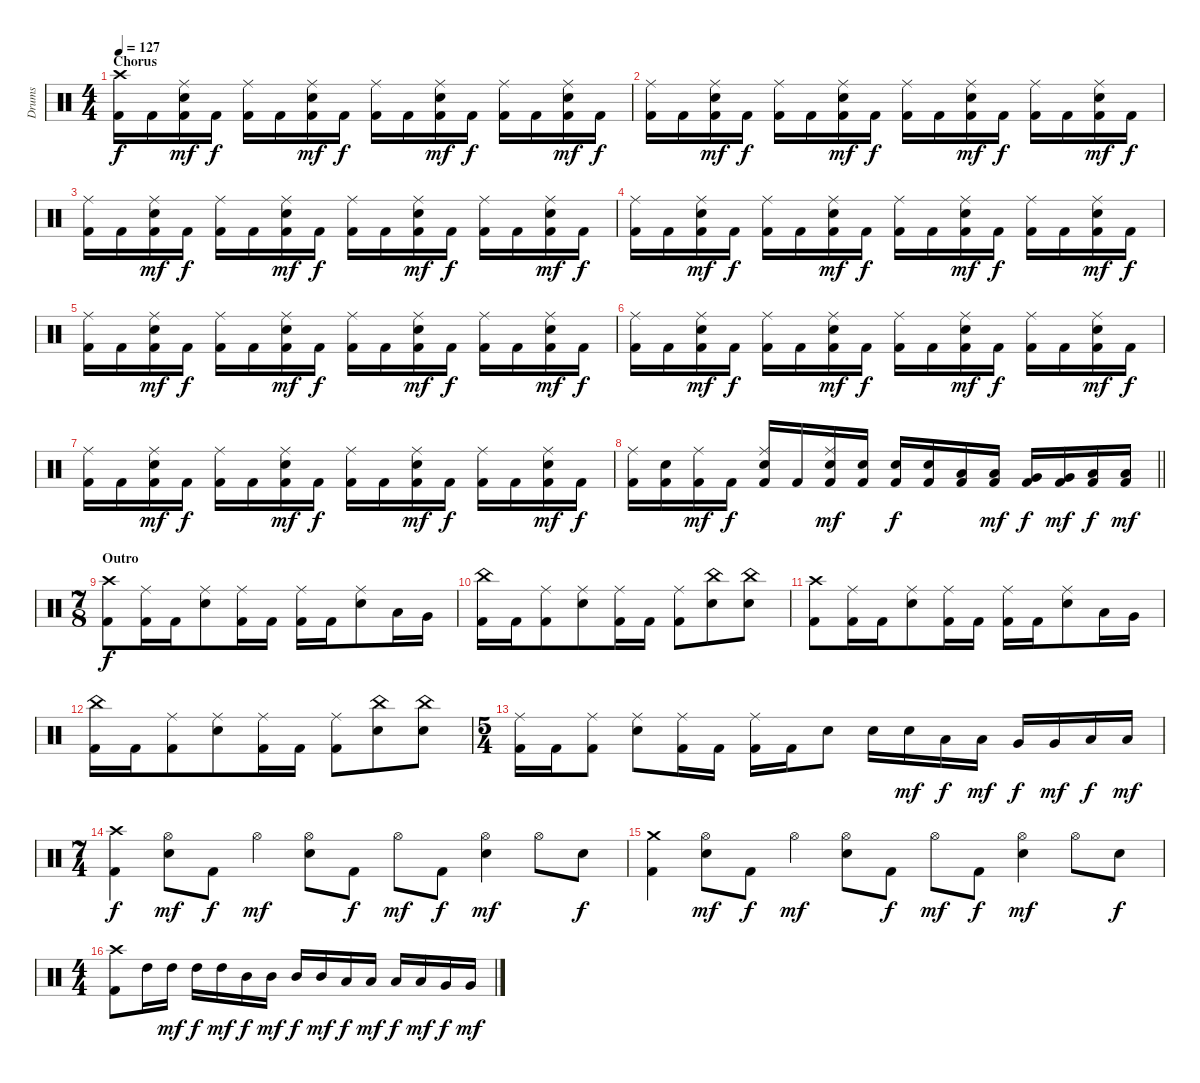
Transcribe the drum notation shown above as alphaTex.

\track ("Drums" "Drums") {instrument percussion}
\staff {score}
\articulation defaults
\ts (4 4)
\section ("" "Chorus")
\tempo 127
\clef neutral
\ks c
("Kick (hit) 2" "Crash high (hit)").16{dy f} "Kick (hit) 2".16 ("Kick (hit) 2" "Ride (middle)" "Electric Snare (hit)").16{dy mf} "Kick (hit) 2".16{dy f} ("Kick (hit) 2" "Ride (middle)").16 "Kick (hit) 2".16 ("Kick (hit) 2" "Ride (middle)" "Electric Snare (hit)").16{dy mf} "Kick (hit) 2".16{dy f} ("Kick (hit) 2" "Ride (middle)").16 "Kick (hit) 2".16 ("Kick (hit) 2" "Ride (middle)" "Electric Snare (hit)").16{dy mf} "Kick (hit) 2".16{dy f} ("Kick (hit) 2" "Ride (middle)").16 "Kick (hit) 2".16 ("Kick (hit) 2" "Ride (middle)" "Electric Snare (hit)").16{dy mf} "Kick (hit) 2".16{dy f} |
("Kick (hit) 2" "Ride (middle)").16 "Kick (hit) 2".16 ("Kick (hit) 2" "Ride (middle)" "Electric Snare (hit)").16{dy mf} "Kick (hit) 2".16{dy f} ("Kick (hit) 2" "Ride (middle)").16 "Kick (hit) 2".16 ("Kick (hit) 2" "Ride (middle)" "Electric Snare (hit)").16{dy mf} "Kick (hit) 2".16{dy f} ("Kick (hit) 2" "Ride (middle)").16 "Kick (hit) 2".16 ("Kick (hit) 2" "Ride (middle)" "Electric Snare (hit)").16{dy mf} "Kick (hit) 2".16{dy f} ("Kick (hit) 2" "Ride (middle)").16 "Kick (hit) 2".16 ("Kick (hit) 2" "Ride (middle)" "Electric Snare (hit)").16{dy mf} "Kick (hit) 2".16{dy f} |
("Kick (hit) 2" "Ride (middle)").16 "Kick (hit) 2".16 ("Kick (hit) 2" "Ride (middle)" "Electric Snare (hit)").16{dy mf} "Kick (hit) 2".16{dy f} ("Kick (hit) 2" "Ride (middle)").16 "Kick (hit) 2".16 ("Kick (hit) 2" "Ride (middle)" "Electric Snare (hit)").16{dy mf} "Kick (hit) 2".16{dy f} ("Kick (hit) 2" "Ride (middle)").16 "Kick (hit) 2".16 ("Kick (hit) 2" "Ride (middle)" "Electric Snare (hit)").16{dy mf} "Kick (hit) 2".16{dy f} ("Kick (hit) 2" "Ride (middle)").16 "Kick (hit) 2".16 ("Kick (hit) 2" "Ride (middle)" "Electric Snare (hit)").16{dy mf} "Kick (hit) 2".16{dy f} |
("Kick (hit) 2" "Ride (middle)").16 "Kick (hit) 2".16 ("Kick (hit) 2" "Ride (middle)" "Electric Snare (hit)").16{dy mf} "Kick (hit) 2".16{dy f} ("Kick (hit) 2" "Ride (middle)").16 "Kick (hit) 2".16 ("Kick (hit) 2" "Ride (middle)" "Electric Snare (hit)").16{dy mf} "Kick (hit) 2".16{dy f} ("Kick (hit) 2" "Ride (middle)").16 "Kick (hit) 2".16 ("Kick (hit) 2" "Ride (middle)" "Electric Snare (hit)").16{dy mf} "Kick (hit) 2".16{dy f} ("Kick (hit) 2" "Ride (middle)").16 "Kick (hit) 2".16 ("Kick (hit) 2" "Ride (middle)" "Electric Snare (hit)").16{dy mf} "Kick (hit) 2".16{dy f} |
("Kick (hit) 2" "Ride (middle)").16 "Kick (hit) 2".16 ("Kick (hit) 2" "Ride (middle)" "Electric Snare (hit)").16{dy mf} "Kick (hit) 2".16{dy f} ("Kick (hit) 2" "Ride (middle)").16 "Kick (hit) 2".16 ("Kick (hit) 2" "Ride (middle)" "Electric Snare (hit)").16{dy mf} "Kick (hit) 2".16{dy f} ("Kick (hit) 2" "Ride (middle)").16 "Kick (hit) 2".16 ("Kick (hit) 2" "Ride (middle)" "Electric Snare (hit)").16{dy mf} "Kick (hit) 2".16{dy f} ("Kick (hit) 2" "Ride (middle)").16 "Kick (hit) 2".16 ("Kick (hit) 2" "Ride (middle)" "Electric Snare (hit)").16{dy mf} "Kick (hit) 2".16{dy f} |
("Kick (hit) 2" "Ride (middle)").16 "Kick (hit) 2".16 ("Kick (hit) 2" "Ride (middle)" "Electric Snare (hit)").16{dy mf} "Kick (hit) 2".16{dy f} ("Kick (hit) 2" "Ride (middle)").16 "Kick (hit) 2".16 ("Kick (hit) 2" "Ride (middle)" "Electric Snare (hit)").16{dy mf} "Kick (hit) 2".16{dy f} ("Kick (hit) 2" "Ride (middle)").16 "Kick (hit) 2".16 ("Kick (hit) 2" "Ride (middle)" "Electric Snare (hit)").16{dy mf} "Kick (hit) 2".16{dy f} ("Kick (hit) 2" "Ride (middle)").16 "Kick (hit) 2".16 ("Kick (hit) 2" "Ride (middle)" "Electric Snare (hit)").16{dy mf} "Kick (hit) 2".16{dy f} |
("Kick (hit) 2" "Ride (middle)").16 "Kick (hit) 2".16 ("Kick (hit) 2" "Ride (middle)" "Electric Snare (hit)").16{dy mf} "Kick (hit) 2".16{dy f} ("Kick (hit) 2" "Ride (middle)").16 "Kick (hit) 2".16 ("Kick (hit) 2" "Ride (middle)" "Electric Snare (hit)").16{dy mf} "Kick (hit) 2".16{dy f} ("Kick (hit) 2" "Ride (middle)").16 "Kick (hit) 2".16 ("Kick (hit) 2" "Ride (middle)" "Electric Snare (hit)").16{dy mf} "Kick (hit) 2".16{dy f} ("Kick (hit) 2" "Ride (middle)").16 "Kick (hit) 2".16 ("Kick (hit) 2" "Ride (middle)" "Electric Snare (hit)").16{dy mf} "Kick (hit) 2".16{dy f} |
\barLineRight lightlight
("Kick (hit) 2" "Ride (middle)").16 ("Kick (hit) 2" "Electric Snare (hit)").16 ("Kick (hit) 2" "Ride (middle)").16{dy mf} "Kick (hit) 2".16{dy f} ("Kick (hit) 2" "Ride (middle)" "Electric Snare (hit)").16 "Kick (hit) 2".16 ("Kick (hit) 2" "Ride (middle)" "Electric Snare (hit)").16{dy mf} ("Kick (hit) 2" "Electric Snare (hit)").16 ("Kick (hit) 2" "Electric Snare (hit)").16{dy f} ("Kick (hit) 2" "Electric Snare (hit)").16 ("Kick (hit) 2" "Low Tom (hit)").16 ("Kick (hit) 2" "Low Tom (hit)").16{dy mf} ("Kick (hit) 2" "Very Low Tom (hit)").16{dy f} ("Kick (hit) 2" "Very Low Tom (hit)").16{dy mf} ("Kick (hit) 2" "Low Floor Tom (hit)").16{dy f} ("Kick (hit) 2" "Low Floor Tom (hit)").16{dy mf} |
\ts (7 8)
\section ("" "Outro")
("Kick (hit) 2" "Crash high (hit)").8{dy f} ("Kick (hit) 2" "Ride (middle)").16 "Kick (hit) 2".16 ("Ride (middle)" "Electric Snare (hit)").8 ("Kick (hit) 2" "Ride (middle)").16 "Kick (hit) 2".16 ("Kick (hit) 2" "Ride (middle)").16 "Kick (hit) 2".16 ("Ride (middle)" "Electric Snare (hit)").8 "Low Tom (hit)".16 "Very Low Tom (hit)".16 |
("Kick (hit) 2" "China (hit)").16 "Kick (hit) 2".16 ("Kick (hit) 2" "Ride (middle)").8 ("Ride (middle)" "Electric Snare (hit)").8 ("Kick (hit) 2" "Ride (middle)").16 "Kick (hit) 2".16 ("Kick (hit) 2" "Ride (middle)").8 ("China (hit)" "Electric Snare (hit)").8 ("China (hit)" "Electric Snare (hit)").8 |
("Kick (hit) 2" "Crash high (hit)").8 ("Kick (hit) 2" "Ride (middle)").16 "Kick (hit) 2".16 ("Ride (middle)" "Electric Snare (hit)").8 ("Kick (hit) 2" "Ride (middle)").16 "Kick (hit) 2".16 ("Kick (hit) 2" "Ride (middle)").16 "Kick (hit) 2".16 ("Ride (middle)" "Electric Snare (hit)").8 "Low Tom (hit)".16 "Very Low Tom (hit)".16 |
("Kick (hit) 2" "China (hit)").16 "Kick (hit) 2".16 ("Kick (hit) 2" "Ride (middle)").8 ("Ride (middle)" "Electric Snare (hit)").8 ("Kick (hit) 2" "Ride (middle)").16 "Kick (hit) 2".16 ("Kick (hit) 2" "Ride (middle)").8 ("China (hit)" "Electric Snare (hit)").8 ("China (hit)" "Electric Snare (hit)").8 |
\ts (5 4)
("Kick (hit) 2" "Ride (middle)").16 "Kick (hit) 2".16 ("Kick (hit) 2" "Ride (middle)").8 ("Ride (middle)" "Electric Snare (hit)").8 ("Kick (hit) 2" "Ride (middle)").16 "Kick (hit) 2".16 ("Kick (hit) 2" "Ride (middle)").16 "Kick (hit) 2".16 "Electric Snare (hit)".8 "Electric Snare (hit)".16 "Electric Snare (hit)".16{dy mf} "Low Tom (hit)".16{dy f} "Low Tom (hit)".16{dy mf} "Very Low Tom (hit)".16{dy f} "Very Low Tom (hit)".16{dy mf} "Low Floor Tom (hit)".16{dy f} "Low Floor Tom (hit)".16{dy mf} |
\ts (7 4)
("Kick (hit) 2" "Crash high (hit)").4{dy f} ("Hi-Hat (open)" "Electric Snare (hit)").8{dy mf} "Kick (hit) 2".8{dy f} "Hi-Hat (open)".4{dy mf} ("Hi-Hat (open)" "Electric Snare (hit)").8 "Kick (hit) 2".8{dy f} "Hi-Hat (open)".8{dy mf} "Kick (hit) 2".8{dy f} ("Hi-Hat (open)" "Electric Snare (hit)").4{dy mf} "Hi-Hat (open)".8 "Electric Snare (hit)".8{dy f} |
("Kick (hit) 2" "Crash medium (hit)").4 ("Hi-Hat (open)" "Electric Snare (hit)").8{dy mf} "Kick (hit) 2".8{dy f} "Hi-Hat (open)".4{dy mf} ("Hi-Hat (open)" "Electric Snare (hit)").8 "Kick (hit) 2".8{dy f} "Hi-Hat (open)".8{dy mf} "Kick (hit) 2".8{dy f} ("Hi-Hat (open)" "Electric Snare (hit)").4{dy mf} "Hi-Hat (open)".8 "Electric Snare (hit)".8{dy f} |
\ts (4 4)
("Kick (hit) 2" "Crash high (hit)").8 "High Tom (hit)".16 "High Tom (hit)".16{dy mf} "High Tom (hit)".16{dy f} "High Tom (hit)".16{dy mf} "Mid Tom (hit)".16{dy f} "Mid Tom (hit)".16{dy mf} "Mid Tom (hit)".16{dy f} "Mid Tom (hit)".16{dy mf} "Low Tom (hit)".16{dy f} "Low Tom (hit)".16{dy mf} "Low Tom (hit)".16{dy f} "Low Tom (hit)".16{dy mf} "Very Low Tom (hit)".16{dy f} "Very Low Tom (hit)".16{dy mf}
